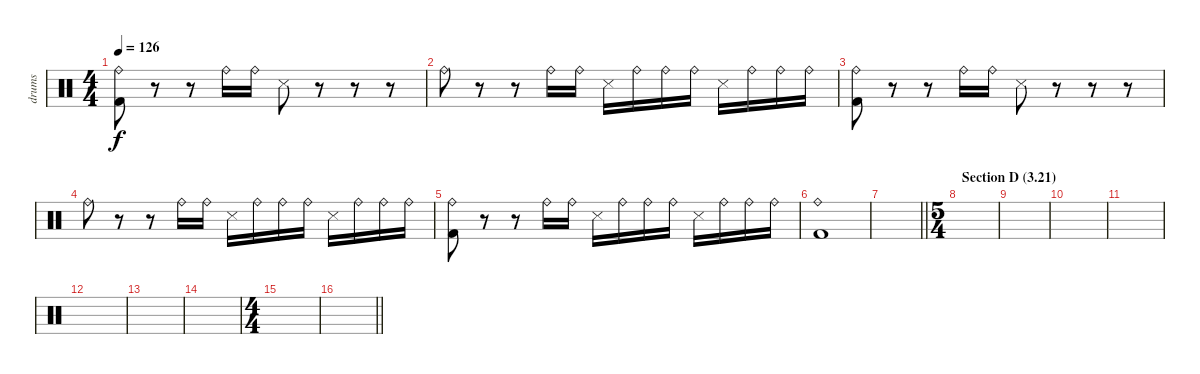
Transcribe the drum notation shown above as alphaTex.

\track ("drums" "drums") {instrument percussion}
\staff {score}
\articulation defaults
\ts (4 4)
\tempo 126
\clef neutral
\ks c
("Ride (bell)" "Kick (hit) 2").8{dy f} r.8 r.8 "Ride (bell)".16 "Ride (bell)".16 "Snare (side stick) 3".8 r.8 r.8 r.8 |
"Ride (bell)".8 r.8 r.8 "Ride (bell)".16 "Ride (bell)".16 "Snare (side stick) 3".16 "Ride (bell)".16 "Ride (bell)".16 "Ride (bell)".16 "Snare (side stick) 3".16 "Ride (bell)".16 "Ride (bell)".16 "Ride (bell)".16 |
("Ride (bell)" "Kick (hit) 2").8 r.8 r.8 "Ride (bell)".16 "Ride (bell)".16 "Snare (side stick) 3".8 r.8 r.8 r.8 |
"Ride (bell)".8 r.8 r.8 "Ride (bell)".16 "Ride (bell)".16 "Snare (side stick) 3".16 "Ride (bell)".16 "Ride (bell)".16 "Ride (bell)".16 "Snare (side stick) 3".16 "Ride (bell)".16 "Ride (bell)".16 "Ride (bell)".16 |
("Ride (bell)" "Kick (hit) 2").8 r.8 r.8 "Ride (bell)".16 "Ride (bell)".16 "Snare (side stick) 3".16 "Ride (bell)".16 "Ride (bell)".16 "Ride (bell)".16 "Snare (side stick) 3".16 "Ride (bell)".16 "Ride (bell)".16 "Ride (bell)".16 |
("Ride (bell)" "Kick (hit) 2").1 |
\barLineRight lightlight
|
\ts (5 4)
\section ("" "Section D (3.21)")
|
|
|
|
|
|
|
\ts (4 4)
|
\barLineRight lightlight
